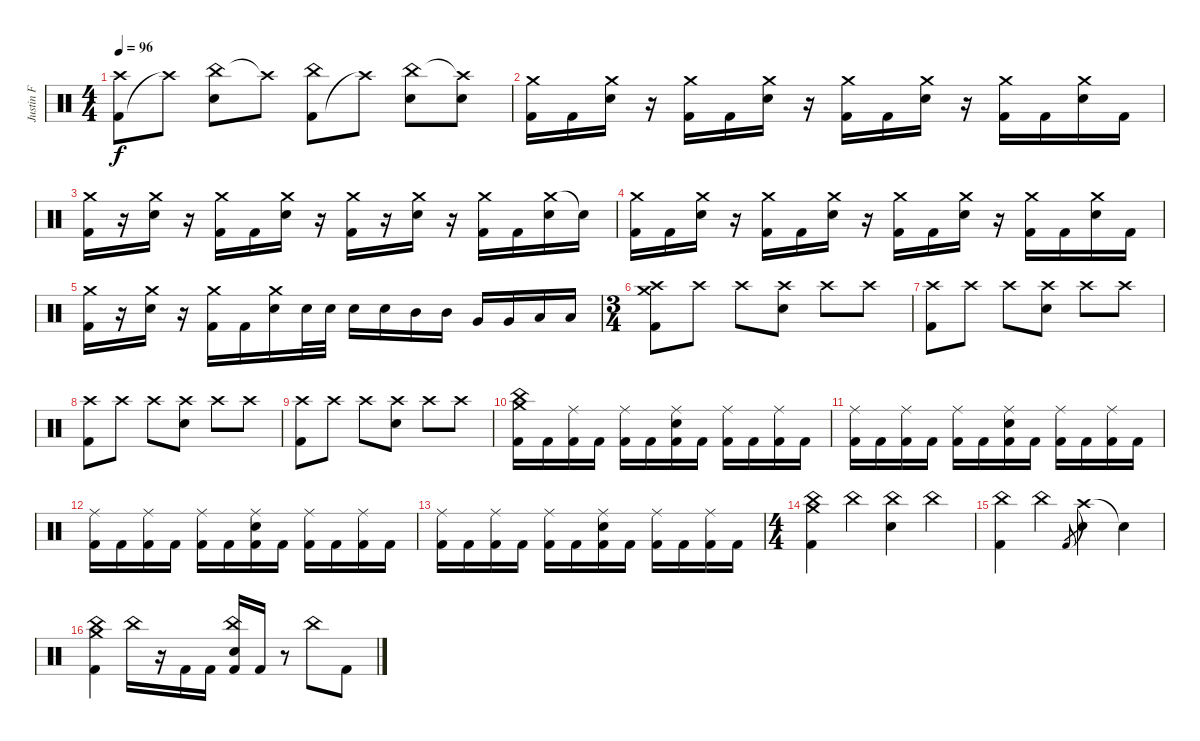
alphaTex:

\track ("Justin F" "Justin F") {instrument percussion}
\staff {score}
\articulation defaults
\ts (4 4)
\tempo 96
\clef neutral
\ks c
("Kick (hit) 2" "Crash high (hit)").8{dy f} "Crash high (hit)"{t}.8 ("China (hit)" "Electric Snare (hit)").8 "Crash high (hit)"{t}.8 ("Kick (hit) 2" "China (hit)").8 "Crash high (hit)"{t}.8 ("China (hit)" "Electric Snare (hit)").8 ("Crash high (hit)"{t} "Electric Snare (hit)").8 |
("Kick (hit) 2" "Crash medium (hit)").16 "Kick (hit) 2".16 ("Crash medium (hit)" "Electric Snare (hit)").16 r.16 ("Kick (hit) 2" "Crash medium (hit)").16 "Kick (hit) 2".16 ("Crash medium (hit)" "Electric Snare (hit)").16 r.16 ("Kick (hit) 2" "Crash medium (hit)").16 "Kick (hit) 2".16 ("Crash medium (hit)" "Electric Snare (hit)").16 r.16 ("Kick (hit) 2" "Crash medium (hit)").16 "Kick (hit) 2".16 ("Crash medium (hit)" "Electric Snare (hit)").16 "Kick (hit) 2".16 |
("Kick (hit) 2" "Crash medium (hit)").16 r.16 ("Crash medium (hit)" "Electric Snare (hit)").16 r.16 ("Kick (hit) 2" "Crash medium (hit)").16 "Kick (hit) 2".16 ("Crash medium (hit)" "Electric Snare (hit)").16 r.16 ("Kick (hit) 2" "Crash medium (hit)").16 r.16 ("Crash medium (hit)" "Electric Snare (hit)").16 r.16 ("Kick (hit) 2" "Crash medium (hit)").16 "Kick (hit) 2".16 ("Crash medium (hit)" "Electric Snare (hit)").16 "Snare (hit)"{t}.16 |
("Kick (hit) 2" "Crash medium (hit)").16 "Kick (hit) 2".16 ("Crash medium (hit)" "Electric Snare (hit)").16 r.16 ("Kick (hit) 2" "Crash medium (hit)").16 "Kick (hit) 2".16 ("Crash medium (hit)" "Electric Snare (hit)").16 r.16 ("Kick (hit) 2" "Crash medium (hit)").16 "Kick (hit) 2".16 ("Crash medium (hit)" "Electric Snare (hit)").16 r.16 ("Kick (hit) 2" "Crash medium (hit)").16 "Kick (hit) 2".16 ("Crash medium (hit)" "Electric Snare (hit)").16 "Kick (hit) 2".16 |
("Kick (hit) 2" "Crash medium (hit)").16 r.16 ("Crash medium (hit)" "Electric Snare (hit)").16 r.16 ("Kick (hit) 2" "Crash medium (hit)").16 "Kick (hit) 2".16 ("Crash medium (hit)" "Electric Snare (hit)").16 "Electric Snare (hit)".32 "Electric Snare (hit)".32 "Electric Snare (hit)".16 "Electric Snare (hit)".16 "Mid Tom (hit)".16 "Mid Tom (hit)".16 "Very Low Tom (hit)".16 "Very Low Tom (hit)".16 "Low Floor Tom (hit)".16 "Low Floor Tom (hit)".16 |
\ts (3 4)
("Kick (hit) 2" "Crash high (hit)" "Crash medium (hit)").8 "Crash high (hit)".8 "Crash high (hit)".8 ("Crash high (hit)" "Electric Snare (hit)").8 "Crash high (hit)".8 "Crash high (hit)".8 |
("Kick (hit) 2" "Crash high (hit)").8 "Crash high (hit)".8 "Crash high (hit)".8 ("Crash high (hit)" "Electric Snare (hit)").8 "Crash high (hit)".8 "Crash high (hit)".8 |
("Kick (hit) 2" "Crash high (hit)").8 "Crash high (hit)".8 "Crash high (hit)".8 ("Crash high (hit)" "Electric Snare (hit)").8 "Crash high (hit)".8 "Crash high (hit)".8 |
("Kick (hit) 2" "Crash high (hit)").8 "Crash high (hit)".8 "Crash high (hit)".8 ("Crash high (hit)" "Electric Snare (hit)").8 "Crash high (hit)".8 "Crash high (hit)".8 |
("Kick (hit) 2" "Crash medium (hit)" "China (hit)").16 "Kick (hit) 2".16 ("Kick (hit) 2" "Ride (middle)").16 "Kick (hit) 2".16 ("Kick (hit) 2" "Ride (middle)").16 "Kick (hit) 2".16 ("Kick (hit) 2" "Ride (middle)" "Electric Snare (hit)").16 "Kick (hit) 2".16 ("Kick (hit) 2" "Ride (middle)").16 "Kick (hit) 2".16 ("Kick (hit) 2" "Ride (middle)").16 "Kick (hit) 2".16 |
("Kick (hit) 2" "Ride (middle)").16 "Kick (hit) 2".16 ("Kick (hit) 2" "Ride (middle)").16 "Kick (hit) 2".16 ("Kick (hit) 2" "Ride (middle)").16 "Kick (hit) 2".16 ("Kick (hit) 2" "Ride (middle)" "Electric Snare (hit)").16 "Kick (hit) 2".16 ("Kick (hit) 2" "Ride (middle)").16 "Kick (hit) 2".16 ("Kick (hit) 2" "Ride (middle)").16 "Kick (hit) 2".16 |
("Kick (hit) 2" "Ride (middle)").16 "Kick (hit) 2".16 ("Kick (hit) 2" "Ride (middle)").16 "Kick (hit) 2".16 ("Kick (hit) 2" "Ride (middle)").16 "Kick (hit) 2".16 ("Kick (hit) 2" "Ride (middle)" "Electric Snare (hit)").16 "Kick (hit) 2".16 ("Kick (hit) 2" "Ride (middle)").16 "Kick (hit) 2".16 ("Kick (hit) 2" "Ride (middle)").16 "Kick (hit) 2".16 |
("Kick (hit) 2" "Ride (middle)").16 "Kick (hit) 2".16 ("Kick (hit) 2" "Ride (middle)").16 "Kick (hit) 2".16 ("Kick (hit) 2" "Ride (middle)").16 "Kick (hit) 2".16 ("Kick (hit) 2" "Ride (middle)" "Electric Snare (hit)").16 "Kick (hit) 2".16 ("Kick (hit) 2" "Ride (middle)").16 "Kick (hit) 2".16 ("Kick (hit) 2" "Ride (middle)").16 "Kick (hit) 2".16 |
\ts (4 4)
("Kick (hit) 2" "China (hit)" "Crash medium (hit)").4 "China (hit)".4 ("China (hit)" "Electric Snare (hit)").4 "China (hit)".4 |
("Kick (hit) 2" "China (hit)").4 "China (hit)".4 "Kick (hit) 2"{h}.8{gr} ("Crash high (hit)"{t} "Electric Snare (hit)").4 "Snare (hit)"{t}.4 |
("Kick (hit) 2" "China (hit)" "Crash medium (hit)").4 "China (hit)".16 r.16 "Kick (hit) 2".16 "Kick (hit) 2".16 ("Kick (hit) 2" "China (hit)" "Electric Snare (hit)").16 "Kick (hit) 2".16 r.8 "China (hit)".8 "Kick (hit) 2".8
